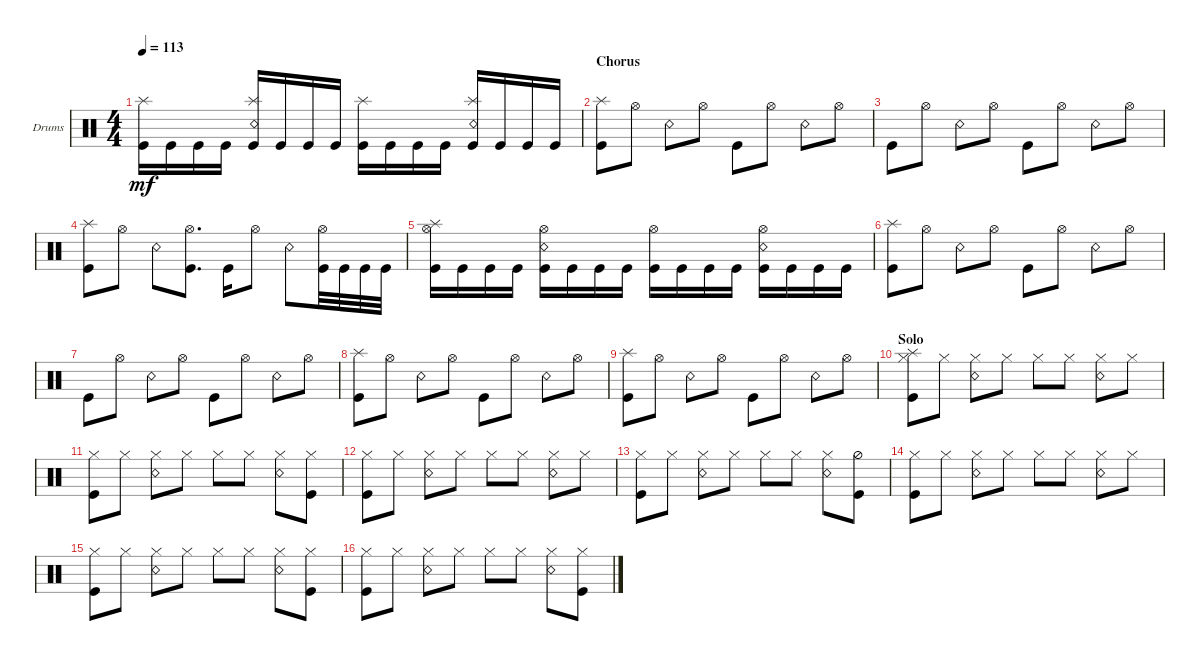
\defaultSystemsLayout 4
\bracketExtendMode groupsimilarinstruments
\firstSystemTrackNameOrientation horizontal
\otherSystemsTrackNameOrientation horizontal
\track ("Drums" "Drums") {instrument percussion}
\staff {score}
\articulation defaults
\ts (4 4)
\tempo 113
\clef neutral
\ks c
("Kick (hit)" "Splash (hit)").16{dy mf} "Kick (hit)".16 "Kick (hit)".16 "Kick (hit)".16 ("Kick (hit)" "Snare (rim shot)" "Splash (hit)").16 "Kick (hit)".16 "Kick (hit)".16 "Kick (hit)".16 ("Kick (hit)" "Splash (hit)").16 "Kick (hit)".16 "Kick (hit)".16 "Kick (hit)".16 ("Kick (hit)" "Snare (rim shot)" "Splash (hit)").16 "Kick (hit)".16 "Kick (hit)".16 "Kick (hit)".16 |
\section ("" "Chorus")
("Kick (hit)" "Splash (hit)").8 "Hi-Hat (open)".8 "Snare (rim shot)".8 "Hi-Hat (open)".8 "Kick (hit)".8 "Hi-Hat (open)".8 "Snare (rim shot)".8 "Hi-Hat (open)".8 |
"Kick (hit)".8 "Hi-Hat (open)".8 "Snare (rim shot)".8 "Hi-Hat (open)".8 "Kick (hit)".8 "Hi-Hat (open)".8 "Snare (rim shot)".8 "Hi-Hat (open)".8 |
("Kick (hit)" "Splash (hit)").8 "Hi-Hat (open)".8 "Snare (rim shot)".8 ("Kick (hit)" "Hi-Hat (open)").8{d} "Kick (hit)".16 "Hi-Hat (open)".8 "Snare (rim shot)".8 ("Kick (hit)" "Hi-Hat (open)").32 "Kick (hit)".32 "Kick (hit)".32 "Kick (hit)".32 |
("Kick (hit)" "Hi-Hat (open)" "Splash (hit)").16 "Kick (hit)".16 "Kick (hit)".16 "Kick (hit)".16 ("Kick (hit)" "Hi-Hat (open)" "Snare (rim shot)").16 "Kick (hit)".16 "Kick (hit)".16 "Kick (hit)".16 ("Kick (hit)" "Hi-Hat (open)").16 "Kick (hit)".16 "Kick (hit)".16 "Kick (hit)".16 ("Kick (hit)" "Hi-Hat (open)" "Snare (rim shot)").16 "Kick (hit)".16 "Kick (hit)".16 "Kick (hit)".16 |
("Kick (hit)" "Splash (hit)").8 "Hi-Hat (open)".8 "Snare (rim shot)".8 "Hi-Hat (open)".8 "Kick (hit)".8 "Hi-Hat (open)".8 "Snare (rim shot)".8 "Hi-Hat (open)".8 |
"Kick (hit)".8 "Hi-Hat (open)".8 "Snare (rim shot)".8 "Hi-Hat (open)".8 "Kick (hit)".8 "Hi-Hat (open)".8 "Snare (rim shot)".8 "Hi-Hat (open)".8 |
("Kick (hit)" "Splash (hit)").8 "Hi-Hat (open)".8 "Snare (rim shot)".8 "Hi-Hat (open)".8 "Kick (hit)".8 "Hi-Hat (open)".8 "Snare (rim shot)".8 "Hi-Hat (open)".8 |
("Kick (hit)" "Splash (hit)").8 "Hi-Hat (open)".8 "Snare (rim shot)".8 "Hi-Hat (open)".8 "Kick (hit)".8 "Hi-Hat (open)".8 "Snare (rim shot)".8 "Hi-Hat (open)".8 |
\section ("" "Solo")
("Kick (hit)" "Hi-Hat (closed)" "Splash (hit)").8 "Hi-Hat (closed)".8 ("Snare (rim shot)" "Hi-Hat (closed)").8 "Hi-Hat (closed)".8 "Hi-Hat (closed)".8 "Hi-Hat (closed)".8 ("Snare (rim shot)" "Hi-Hat (closed)").8 "Hi-Hat (closed)".8 |
("Kick (hit)" "Hi-Hat (closed)").8 "Hi-Hat (closed)".8 ("Snare (rim shot)" "Hi-Hat (closed)").8 "Hi-Hat (closed)".8 "Hi-Hat (closed)".8 "Hi-Hat (closed)".8 ("Snare (rim shot)" "Hi-Hat (closed)").8 ("Hi-Hat (closed)" "Kick (hit)").8 |
("Kick (hit)" "Hi-Hat (closed)").8 "Hi-Hat (closed)".8 ("Snare (rim shot)" "Hi-Hat (closed)").8 "Hi-Hat (closed)".8 "Hi-Hat (closed)".8 "Hi-Hat (closed)".8 ("Snare (rim shot)" "Hi-Hat (closed)").8 "Hi-Hat (closed)".8 |
("Kick (hit)" "Hi-Hat (closed)").8 "Hi-Hat (closed)".8 ("Snare (rim shot)" "Hi-Hat (closed)").8 "Hi-Hat (closed)".8 "Hi-Hat (closed)".8 "Hi-Hat (closed)".8 ("Snare (rim shot)" "Hi-Hat (closed)").8 ("Hi-Hat (half)" "Kick (hit)").8 |
("Kick (hit)" "Hi-Hat (closed)").8 "Hi-Hat (closed)".8 ("Snare (rim shot)" "Hi-Hat (closed)").8 "Hi-Hat (closed)".8 "Hi-Hat (closed)".8 "Hi-Hat (closed)".8 ("Snare (rim shot)" "Hi-Hat (closed)").8 "Hi-Hat (closed)".8 |
("Kick (hit)" "Hi-Hat (closed)").8 "Hi-Hat (closed)".8 ("Snare (rim shot)" "Hi-Hat (closed)").8 "Hi-Hat (closed)".8 "Hi-Hat (closed)".8 "Hi-Hat (closed)".8 ("Snare (rim shot)" "Hi-Hat (closed)").8 ("Hi-Hat (closed)" "Kick (hit)").8 |
("Kick (hit)" "Hi-Hat (closed)").8 "Hi-Hat (closed)".8 ("Snare (rim shot)" "Hi-Hat (closed)").8 "Hi-Hat (closed)".8 "Hi-Hat (closed)".8 "Hi-Hat (closed)".8 ("Snare (rim shot)" "Hi-Hat (closed)").8 ("Hi-Hat (closed)" "Kick (hit)").8
